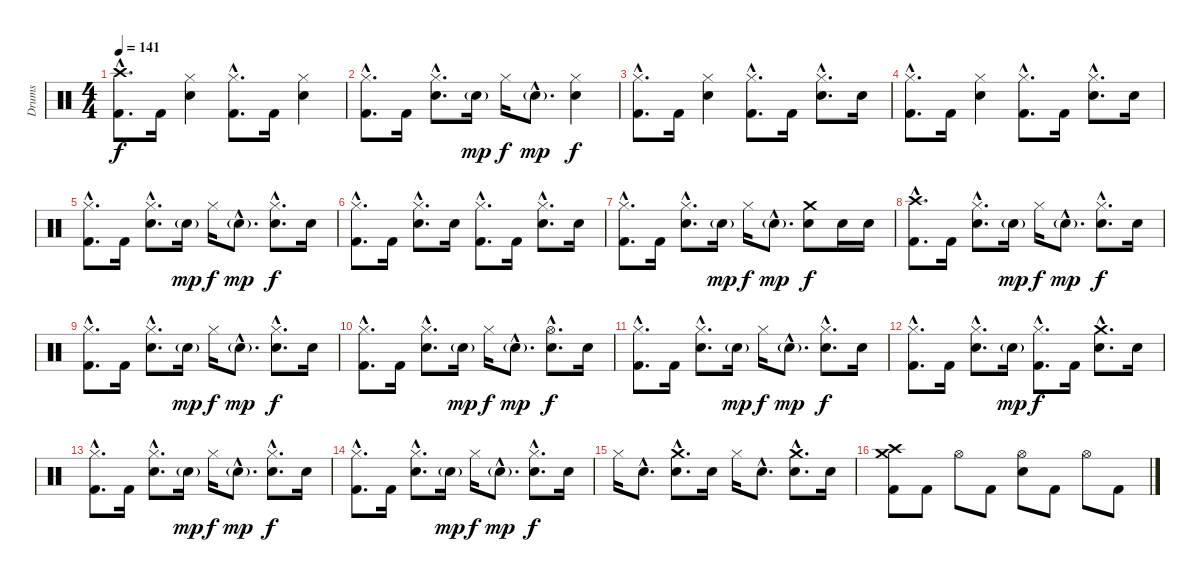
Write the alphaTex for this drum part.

\track ("Drums" "Drums") {instrument percussion}
\staff {score}
\articulation defaults
\ts (4 4)
\tempo 141
\clef neutral
\ks c
("Crash high (hit)"{hac} "Kick (hit) 2"{hac}).8{d dy f} "Kick (hit) 2".16 ("Hi-Hat (closed)" "Snare (hit) 2").4 ("Hi-Hat (closed)"{hac} "Kick (hit) 2"{hac}).8{d} "Kick (hit) 2".16 ("Hi-Hat (closed)" "Snare (hit) 2").4 |
("Hi-Hat (closed)"{hac} "Kick (hit) 2"{hac}).8{d} "Kick (hit) 2".16 ("Hi-Hat (closed)"{hac} "Snare (hit) 2"{hac}).8{d} "Snare (hit) 2"{g}.16{dy mp} "Hi-Hat (closed)".16{dy f} "Snare (hit) 2"{g hac}.8{d dy mp} ("Hi-Hat (closed)" "Snare (hit) 2").4{dy f} |
("Hi-Hat (closed)"{hac} "Kick (hit) 2"{hac}).8{d} "Kick (hit) 2".16 ("Hi-Hat (closed)" "Snare (hit) 2").4 ("Hi-Hat (closed)"{hac} "Kick (hit) 2"{hac}).8{d} "Kick (hit) 2".16 ("Hi-Hat (closed)"{hac} "Snare (hit) 2"{hac}).8{d} "Snare (hit) 2".16 |
("Hi-Hat (closed)"{hac} "Kick (hit) 2"{hac}).8{d} "Kick (hit) 2".16 ("Hi-Hat (closed)" "Snare (hit) 2").4 ("Hi-Hat (closed)"{hac} "Kick (hit) 2"{hac}).8{d} "Kick (hit) 2".16 ("Hi-Hat (closed)"{hac} "Snare (hit) 2"{hac}).8{d} "Snare (hit) 2".16 |
("Hi-Hat (closed)"{hac} "Kick (hit) 2"{hac}).8{d} "Kick (hit) 2".16 ("Hi-Hat (closed)"{hac} "Snare (hit) 2"{hac}).8{d} "Snare (hit) 2"{g}.16{dy mp} "Hi-Hat (closed)".16{dy f} "Snare (hit) 2"{g hac}.8{d dy mp} ("Hi-Hat (closed)"{hac} "Snare (hit) 2"{hac}).8{d dy f} "Snare (hit) 2".16 |
("Hi-Hat (closed)"{hac} "Kick (hit) 2"{hac}).8{d} "Kick (hit) 2".16 ("Hi-Hat (closed)"{hac} "Snare (hit) 2"{hac}).8{d} "Snare (hit) 2".16 ("Hi-Hat (closed)"{hac} "Kick (hit) 2"{hac}).8{d} "Kick (hit) 2".16 ("Hi-Hat (closed)"{hac} "Snare (hit) 2"{hac}).8{d} "Snare (hit) 2".16 |
("Hi-Hat (closed)"{hac} "Kick (hit) 2"{hac}).8{d} "Kick (hit) 2".16 ("Hi-Hat (closed)"{hac} "Snare (hit) 2"{hac}).8{d} "Snare (hit) 2"{g}.16{dy mp} "Hi-Hat (closed)".16{dy f} "Snare (hit) 2"{g hac}.8{d dy mp} ("Crash medium (hit)" "Snare (hit) 2").8{dy f} "Snare (hit) 2".16 "Snare (hit) 2".16 |
("Crash high (hit)"{hac} "Kick (hit) 2"{hac}).8{d} "Kick (hit) 2".16 ("Hi-Hat (closed)"{hac} "Snare (hit) 2"{hac}).8{d} "Snare (hit) 2"{g}.16{dy mp} "Hi-Hat (closed)".16{dy f} "Snare (hit) 2"{g hac}.8{d dy mp} ("Hi-Hat (closed)"{hac} "Snare (hit) 2"{hac}).8{d dy f} "Snare (hit) 2".16 |
("Hi-Hat (closed)"{hac} "Kick (hit) 2"{hac}).8{d} "Kick (hit) 2".16 ("Hi-Hat (closed)"{hac} "Snare (hit) 2"{hac}).8{d} "Snare (hit) 2"{g}.16{dy mp} "Hi-Hat (closed)".16{dy f} "Snare (hit) 2"{g hac}.8{d dy mp} ("Hi-Hat (closed)"{hac} "Snare (hit) 2"{hac}).8{d dy f} "Snare (hit) 2".16 |
("Hi-Hat (closed)"{hac} "Kick (hit) 2"{hac}).8{d} "Kick (hit) 2".16 ("Hi-Hat (closed)"{hac} "Snare (hit) 2"{hac}).8{d} "Snare (hit) 2"{g}.16{dy mp} "Hi-Hat (closed)".16{dy f} "Snare (hit) 2"{g hac}.8{d dy mp} ("Hi-Hat (open)"{hac} "Snare (hit) 2"{hac}).8{d dy f} "Snare (hit) 2".16 |
("Hi-Hat (closed)"{hac} "Kick (hit) 2"{hac}).8{d} "Kick (hit) 2".16 ("Hi-Hat (closed)"{hac} "Snare (hit) 2"{hac}).8{d} "Snare (hit) 2"{g}.16{dy mp} "Hi-Hat (closed)".16{dy f} "Snare (hit) 2"{g hac}.8{d dy mp} ("Hi-Hat (closed)"{hac} "Snare (hit) 2"{hac}).8{d dy f} "Snare (hit) 2".16 |
("Hi-Hat (closed)"{hac} "Kick (hit) 2"{hac}).8{d} "Kick (hit) 2".16 ("Hi-Hat (closed)"{hac} "Snare (hit) 2"{hac}).8{d} "Snare (hit) 2"{g}.16{dy mp} ("Hi-Hat (closed)"{hac} "Kick (hit) 2"{hac}).8{d dy f} "Kick (hit) 2".16 ("Crash medium (hit)"{hac} "Snare (hit) 2"{hac}).8{d} "Snare (hit) 2".16 |
("Hi-Hat (closed)"{hac} "Kick (hit) 2"{hac}).8{d} "Kick (hit) 2".16 ("Hi-Hat (closed)"{hac} "Snare (hit) 2"{hac}).8{d} "Snare (hit) 2"{g}.16{dy mp} "Hi-Hat (closed)".16{dy f} "Snare (hit) 2"{g hac}.8{d dy mp} ("Hi-Hat (closed)"{hac} "Snare (hit) 2"{hac}).8{d dy f} "Snare (hit) 2".16 |
("Hi-Hat (closed)"{hac} "Kick (hit) 2"{hac}).8{d} "Kick (hit) 2".16 ("Hi-Hat (closed)"{hac} "Snare (hit) 2"{hac}).8{d} "Snare (hit) 2"{g}.16{dy mp} "Hi-Hat (closed)".16{dy f} "Snare (hit) 2"{g hac}.8{d dy mp} ("Hi-Hat (closed)"{hac} "Snare (hit) 2"{hac}).8{d dy f} "Snare (hit) 2".16 |
"Hi-Hat (closed)".16 "Snare (hit) 2"{hac}.8{d} ("Crash medium (hit)"{hac} "Snare (hit) 2"{hac}).8{d} "Snare (hit) 2".16 "Hi-Hat (closed)".16 "Snare (hit) 2"{hac}.8{d} ("Crash medium (hit)"{hac} "Snare (hit) 2"{hac}).8{d} "Snare (hit) 2".16 |
("Crash high (hit)" "Crash medium (hit)" "Kick (hit) 2").8 "Kick (hit) 2".8 "Hi-Hat (open)".8 "Kick (hit) 2".8 ("Hi-Hat (open)" "Snare (hit) 2").8 "Kick (hit) 2".8 "Hi-Hat (open)".8 "Kick (hit) 2".8
